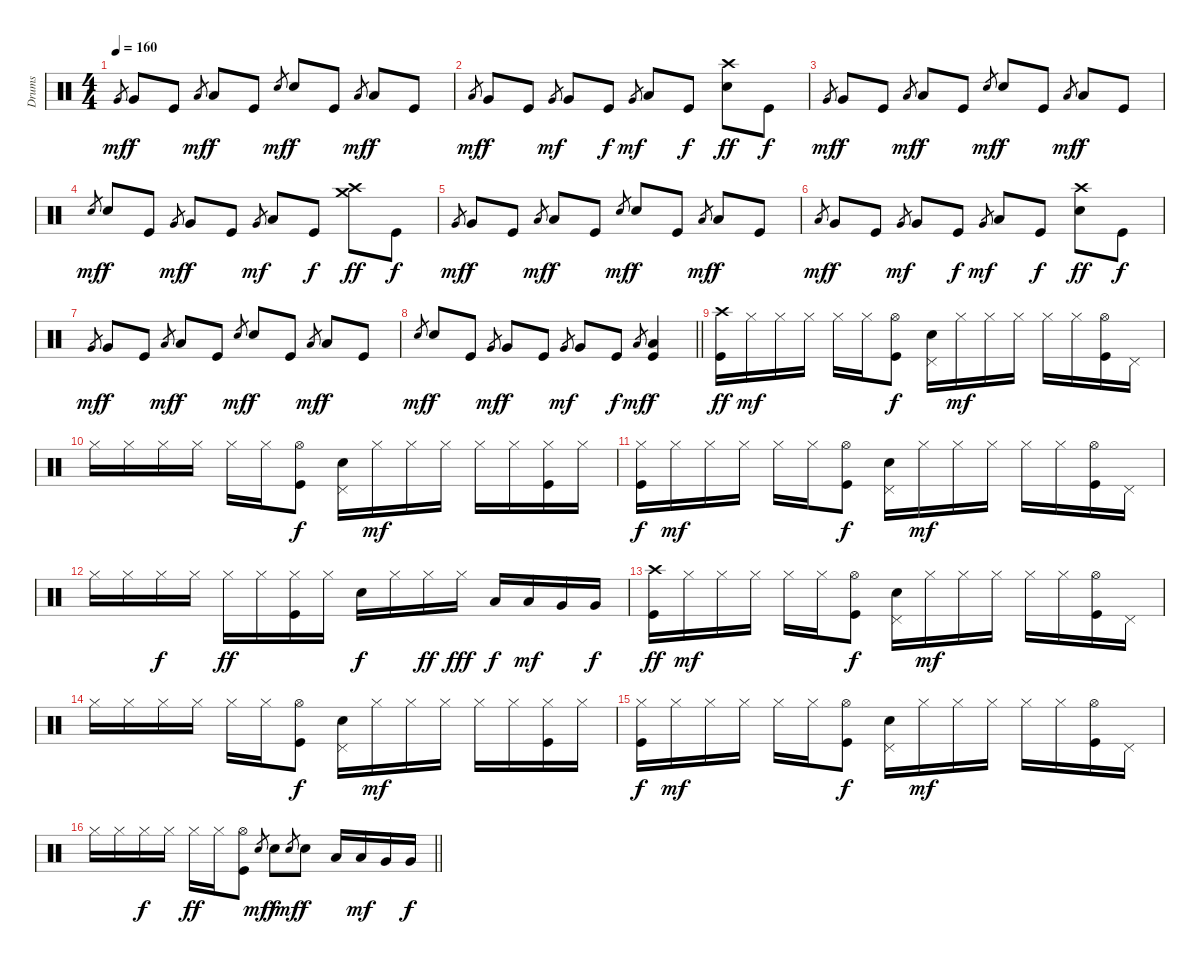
\track ("Drums" "Drums") {instrument percussion}
\staff {score}
\articulation defaults
\ts (4 4)
\tempo 160
\clef neutral
\ks c "Very Low Tom (hit)".8{gr dy mf} "Very Low Tom (hit)".8{dy f} "Kick (hit)".8 "Low Floor Tom (hit)".8{gr dy mf} "Low Floor Tom (hit)".8{dy f} "Kick (hit)".8 "Snare (hit) 2".8{gr dy mf} "Snare (hit) 2".8{dy f} "Kick (hit)".8 "Low Tom (hit)".8{gr dy mf} "Low Tom (hit)".8{dy f} "Kick (hit)".8
|
"Low Tom (hit)".8{gr dy mf} "Very Low Tom (hit)".8{dy f} "Kick (hit)".8 "Very Low Tom (hit)".8{gr dy mf} "Very Low Tom (hit)".8 "Kick (hit)".8{dy f} "Very Low Tom (hit)".8{gr dy mf} "Low Floor Tom (hit)".8 "Kick (hit)".8{dy f} ("Crash high (hit)" "Snare (hit) 2").8{dy ff} "Kick (hit)".8{dy f} |
"Very Low Tom (hit)".8{gr dy mf} "Very Low Tom (hit)".8{dy f} "Kick (hit)".8 "Low Floor Tom (hit)".8{gr dy mf} "Low Floor Tom (hit)".8{dy f} "Kick (hit)".8 "Snare (hit) 2".8{gr dy mf} "Snare (hit) 2".8{dy f} "Kick (hit)".8 "Low Tom (hit)".8{gr dy mf} "Low Tom (hit)".8{dy f} "Kick (hit)".8 |
"Snare (hit) 2".8{gr dy mf} "Snare (hit) 2".8{dy f} "Kick (hit)".8 "Very Low Tom (hit)".8{gr dy mf} "Very Low Tom (hit)".8{dy f} "Kick (hit)".8 "Very Low Tom (hit)".8{gr dy mf} "Low Floor Tom (hit)".8 "Kick (hit)".8{dy f} ("Crash high (hit)" "Crash medium (hit)").8{dy ff} "Kick (hit)".8{dy f} |
"Very Low Tom (hit)".8{gr dy mf} "Very Low Tom (hit)".8{dy f} "Kick (hit)".8 "Low Floor Tom (hit)".8{gr dy mf} "Low Floor Tom (hit)".8{dy f} "Kick (hit)".8 "Snare (hit) 2".8{gr dy mf} "Snare (hit) 2".8{dy f} "Kick (hit)".8 "Low Tom (hit)".8{gr dy mf} "Low Tom (hit)".8{dy f} "Kick (hit)".8 |
"Low Tom (hit)".8{gr dy mf} "Very Low Tom (hit)".8{dy f} "Kick (hit)".8 "Very Low Tom (hit)".8{gr dy mf} "Very Low Tom (hit)".8 "Kick (hit)".8{dy f} "Very Low Tom (hit)".8{gr dy mf} "Low Floor Tom (hit)".8 "Kick (hit)".8{dy f} ("Crash high (hit)" "Snare (hit) 2").8{dy ff} "Kick (hit)".8{dy f} |
"Very Low Tom (hit)".8{gr dy mf} "Very Low Tom (hit)".8{dy f} "Kick (hit)".8 "Low Floor Tom (hit)".8{gr dy mf} "Low Floor Tom (hit)".8{dy f} "Kick (hit)".8 "Snare (hit) 2".8{gr dy mf} "Snare (hit) 2".8{dy f} "Kick (hit)".8 "Low Tom (hit)".8{gr dy mf} "Low Tom (hit)".8{dy f} "Kick (hit)".8 |
\barLineRight lightlight "Snare (hit) 2".8{gr dy mf} "Snare (hit) 2".8{dy f} "Kick (hit)".8 "Very Low Tom (hit)".8{gr dy mf} "Very Low Tom (hit)".8{dy f} "Kick (hit)".8 "Very Low Tom (hit)".8{gr dy mf} "Very Low Tom (hit)".8 "Kick (hit)".8{dy f} "Low Floor Tom (hit)".8{gr dy mf}
("Low Floor Tom (hit)" "Kick (hit)").4{dy f} |
("Crash high (hit)" "Kick (hit)").16{dy ff} "Hi-Hat (closed)".16{dy mf} "Hi-Hat (closed)".16 "Hi-Hat (closed)".16 "Hi-Hat (closed)".16 "Hi-Hat (closed)".16 ("Hi-Hat (open)" "Kick (hit)").8{dy f} ("Pedal Hi-Hat (hit)" "Snare (hit) 2").16 "Hi-Hat (closed)".16{dy mf} "Hi-Hat (closed)".16 "Hi-Hat (closed)".16 "Hi-Hat (closed)".16 "Hi-Hat (closed)".16 ("Hi-Hat (open)" "Kick (hit)").16 "Pedal Hi-Hat (hit)".16 |
"Hi-Hat (closed)".16 "Hi-Hat (closed)".16 "Hi-Hat (closed)".16 "Hi-Hat (closed)".16 "Hi-Hat (closed)".16 "Hi-Hat (closed)".16 ("Hi-Hat (open)" "Kick (hit)").8{dy f} ("Pedal Hi-Hat (hit)" "Snare (hit) 2").16 "Hi-Hat (closed)".16{dy mf} "Hi-Hat (closed)".16 "Hi-Hat (closed)".16 "Hi-Hat (closed)".16 "Hi-Hat (closed)".16 ("Hi-Hat (closed)" "Kick (hit)").16 "Hi-Hat (closed)".16 |
("Hi-Hat (closed)" "Kick (hit)").16{dy f} "Hi-Hat (closed)".16{dy mf} "Hi-Hat (closed)".16 "Hi-Hat (closed)".16 "Hi-Hat (closed)".16 "Hi-Hat (closed)".16 ("Hi-Hat (open)" "Kick (hit)").8{dy f} ("Pedal Hi-Hat (hit)" "Snare (hit) 2").16 "Hi-Hat (closed)".16{dy mf} "Hi-Hat (closed)".16 "Hi-Hat (closed)".16 "Hi-Hat (closed)".16 "Hi-Hat (closed)".16 ("Hi-Hat (open)" "Kick (hit)").16 "Pedal Hi-Hat (hit)".16 |
"Hi-Hat (closed)".16 "Hi-Hat (closed)".16 "Hi-Hat (closed)".16{dy f} "Hi-Hat (closed)".16 "Hi-Hat (closed)".16{dy ff} "Hi-Hat (closed)".16 ("Hi-Hat (closed)" "Kick (hit)").16 "Hi-Hat (closed)".16 "Snare (hit) 2".16{dy f} "Hi-Hat (closed)".16 "Hi-Hat (closed)".16{dy ff} "Hi-Hat (closed)".16{dy fff} "Low Tom (hit)".16{dy f} "Low Tom (hit)".16{dy mf} "Very Low Tom (hit)".16 "Very Low Tom (hit)".16{dy f} |
("Crash high (hit)" "Kick (hit)").16{dy ff} "Hi-Hat (closed)".16{dy mf} "Hi-Hat (closed)".16 "Hi-Hat (closed)".16 "Hi-Hat (closed)".16 "Hi-Hat (closed)".16 ("Hi-Hat (open)" "Kick (hit)").8{dy f} ("Pedal Hi-Hat (hit)" "Snare (hit) 2").16 "Hi-Hat (closed)".16{dy mf} "Hi-Hat (closed)".16 "Hi-Hat (closed)".16 "Hi-Hat (closed)".16 "Hi-Hat (closed)".16 ("Hi-Hat (open)" "Kick (hit)").16 "Pedal Hi-Hat (hit)".16 |
"Hi-Hat (closed)".16 "Hi-Hat (closed)".16 "Hi-Hat (closed)".16 "Hi-Hat (closed)".16 "Hi-Hat (closed)".16 "Hi-Hat (closed)".16 ("Hi-Hat (open)" "Kick (hit)").8{dy f} ("Pedal Hi-Hat (hit)" "Snare (hit) 2").16 "Hi-Hat (closed)".16{dy mf} "Hi-Hat (closed)".16 "Hi-Hat (closed)".16 "Hi-Hat (closed)".16 "Hi-Hat (closed)".16 ("Hi-Hat (closed)" "Kick (hit)").16 "Hi-Hat (closed)".16 |
("Hi-Hat (closed)" "Kick (hit)").16{dy f} "Hi-Hat (closed)".16{dy mf} "Hi-Hat (closed)".16 "Hi-Hat (closed)".16 "Hi-Hat (closed)".16 "Hi-Hat (closed)".16 ("Hi-Hat (open)" "Kick (hit)").8{dy f} ("Pedal Hi-Hat (hit)" "Snare (hit) 2").16 "Hi-Hat (closed)".16{dy mf} "Hi-Hat (closed)".16 "Hi-Hat (closed)".16 "Hi-Hat (closed)".16 "Hi-Hat (closed)".16 ("Hi-Hat (open)" "Kick (hit)").16 "Pedal Hi-Hat (hit)".16 |
\barLineRight lightlight "Hi-Hat (closed)".16 "Hi-Hat (closed)".16 "Hi-Hat (closed)".16{dy f} "Hi-Hat (closed)".16 "Hi-Hat (closed)".16{dy ff} "Hi-Hat (closed)".16
("Hi-Hat (open)" "Kick (hit)").8 "Snare (hit) 2".8{gr dy mf} "Snare (hit) 2".8{dy f} "Snare (hit) 2".8{gr dy mf} "Snare (hit) 2".8{dy f} "Low Tom (hit)".16 "Low Tom (hit)".16{dy mf} "Very Low Tom (hit)".16 "Very Low Tom (hit)".16{dy f}
